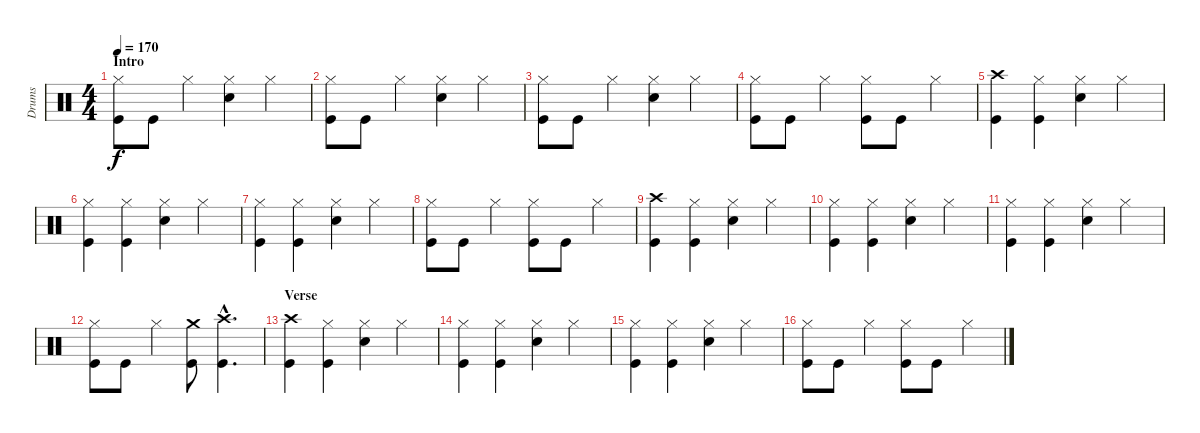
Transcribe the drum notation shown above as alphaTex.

\track ("Drums" "Drums") {instrument percussion}
\staff {score}
\articulation defaults
\ts (4 4)
\section ("" "Intro")
\tempo 170
\clef neutral
\ks c
("Hi-Hat (closed)" "Kick (hit)").8{dy f} "Kick (hit)".8 "Hi-Hat (closed)".4 ("Hi-Hat (closed)" "Snare (hit) 2").4 "Hi-Hat (closed)".4 |
("Hi-Hat (closed)" "Kick (hit)").8 "Kick (hit)".8 "Hi-Hat (closed)".4 ("Hi-Hat (closed)" "Snare (hit) 2").4 "Hi-Hat (closed)".4 |
("Hi-Hat (closed)" "Kick (hit)").8 "Kick (hit)".8 "Hi-Hat (closed)".4 ("Hi-Hat (closed)" "Snare (hit) 2").4 "Hi-Hat (closed)".4 |
("Hi-Hat (closed)" "Kick (hit)").8 "Kick (hit)".8 "Hi-Hat (closed)".4 ("Hi-Hat (closed)" "Kick (hit)").8 "Kick (hit)".8 "Hi-Hat (closed)".4 |
("Crash high (hit)" "Kick (hit)").4 ("Hi-Hat (closed)" "Kick (hit)").4 ("Hi-Hat (closed)" "Snare (hit) 2").4 "Hi-Hat (closed)".4 |
("Hi-Hat (closed)" "Kick (hit)").4 ("Hi-Hat (closed)" "Kick (hit)").4 ("Hi-Hat (closed)" "Snare (hit) 2").4 "Hi-Hat (closed)".4 |
("Hi-Hat (closed)" "Kick (hit)").4 ("Hi-Hat (closed)" "Kick (hit)").4 ("Hi-Hat (closed)" "Snare (hit) 2").4 "Hi-Hat (closed)".4 |
("Hi-Hat (closed)" "Kick (hit)").8 "Kick (hit)".8 "Hi-Hat (closed)".4 ("Hi-Hat (closed)" "Kick (hit)").8 "Kick (hit)".8 "Hi-Hat (closed)".4 |
("Crash high (hit)" "Kick (hit)").4 ("Hi-Hat (closed)" "Kick (hit)").4 ("Hi-Hat (closed)" "Snare (hit) 2").4 "Hi-Hat (closed)".4 |
("Hi-Hat (closed)" "Kick (hit)").4 ("Hi-Hat (closed)" "Kick (hit)").4 ("Hi-Hat (closed)" "Snare (hit) 2").4 "Hi-Hat (closed)".4 |
("Hi-Hat (closed)" "Kick (hit)").4 ("Hi-Hat (closed)" "Kick (hit)").4 ("Hi-Hat (closed)" "Snare (hit) 2").4 "Hi-Hat (closed)".4 |
("Hi-Hat (closed)" "Kick (hit)").8 "Kick (hit)".8 "Hi-Hat (closed)".4 ("Crash medium (hit)" "Kick (hit)").8 ("Crash high (hit)"{hac} "Kick (hit)"{hac}).4{d} |
\section ("" "Verse")
("Crash high (hit)" "Kick (hit)").4 ("Hi-Hat (closed)" "Kick (hit)").4 ("Hi-Hat (closed)" "Snare (hit) 2").4 "Hi-Hat (closed)".4 |
("Hi-Hat (closed)" "Kick (hit)").4 ("Hi-Hat (closed)" "Kick (hit)").4 ("Hi-Hat (closed)" "Snare (hit) 2").4 "Hi-Hat (closed)".4 |
("Hi-Hat (closed)" "Kick (hit)").4 ("Hi-Hat (closed)" "Kick (hit)").4 ("Hi-Hat (closed)" "Snare (hit) 2").4 "Hi-Hat (closed)".4 |
("Hi-Hat (closed)" "Kick (hit)").8 "Kick (hit)".8 "Hi-Hat (closed)".4 ("Hi-Hat (closed)" "Kick (hit)").8 "Kick (hit)".8 "Hi-Hat (closed)".4
